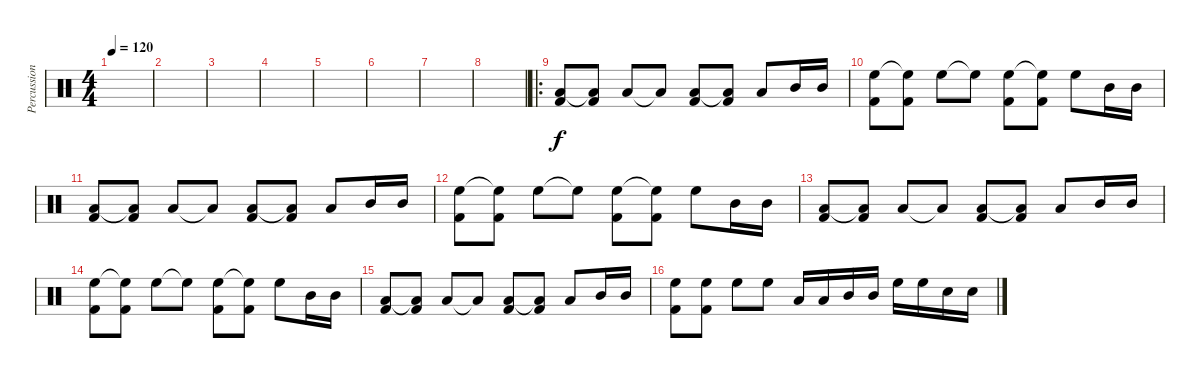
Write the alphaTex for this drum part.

\track ("Percussions" "Percussion") {instrument percussion}
\staff {score}
\articulation defaults
\ts (4 4)
\tempo 120
\clef neutral
\ks c
|
|
|
|
|
|
|
|
\ro
("Low Tom (hit)" "Kick (hit) 2").8 ("Low Floor Tom (hit)"{t} "Kick (hit) 2").8 "Low Tom (hit)".8 "Low Floor Tom (hit)"{t}.8 ("Low Tom (hit)" "Kick (hit) 2").8 ("Low Floor Tom (hit)"{t} "Kick (hit) 2").8 "Low Tom (hit)".8 "Mid Tom (hit)".16 "Mid Tom (hit)".16 |
("High Floor Tom (hit)" "Kick (hit) 2").8 ("High Floor Tom (hit)"{t} "Kick (hit) 2").8 "High Floor Tom (hit)".8 "High Floor Tom (hit)"{t}.8 ("High Floor Tom (hit)" "Kick (hit) 2").8 ("High Floor Tom (hit)"{t} "Kick (hit) 2").8 "High Floor Tom (hit)".8 "Mid Tom (hit)".16 "Mid Tom (hit)".16 |
("Low Tom (hit)" "Kick (hit) 2").8 ("Low Floor Tom (hit)"{t} "Kick (hit) 2").8 "Low Tom (hit)".8 "Low Floor Tom (hit)"{t}.8 ("Low Tom (hit)" "Kick (hit) 2").8 ("Low Floor Tom (hit)"{t} "Kick (hit) 2").8 "Low Tom (hit)".8 "Mid Tom (hit)".16 "Mid Tom (hit)".16 |
("High Floor Tom (hit)" "Kick (hit) 2").8 ("High Floor Tom (hit)"{t} "Kick (hit) 2").8 "High Floor Tom (hit)".8 "High Floor Tom (hit)"{t}.8 ("High Floor Tom (hit)" "Kick (hit) 2").8 ("High Floor Tom (hit)"{t} "Kick (hit) 2").8 "High Floor Tom (hit)".8 "Mid Tom (hit)".16 "Mid Tom (hit)".16 |
("Low Tom (hit)" "Kick (hit) 2").8 ("Low Floor Tom (hit)"{t} "Kick (hit) 2").8 "Low Tom (hit)".8 "Low Floor Tom (hit)"{t}.8 ("Low Tom (hit)" "Kick (hit) 2").8 ("Low Floor Tom (hit)"{t} "Kick (hit) 2").8 "Low Tom (hit)".8 "Mid Tom (hit)".16 "Mid Tom (hit)".16 |
("High Floor Tom (hit)" "Kick (hit) 2").8 ("High Floor Tom (hit)"{t} "Kick (hit) 2").8 "High Floor Tom (hit)".8 "High Floor Tom (hit)"{t}.8 ("High Floor Tom (hit)" "Kick (hit) 2").8 ("High Floor Tom (hit)"{t} "Kick (hit) 2").8 "High Floor Tom (hit)".8 "Mid Tom (hit)".16 "Mid Tom (hit)".16 |
("Low Tom (hit)" "Kick (hit) 2").8 ("Low Tom (hit)"{t} "Kick (hit) 2").8 "Low Tom (hit)".8 "Low Tom (hit)"{t}.8 ("Low Tom (hit)" "Kick (hit) 2").8 ("Low Tom (hit)"{t} "Kick (hit) 2").8 "Low Tom (hit)".8 "Mid Tom (hit)".16 "Mid Tom (hit)".16 |
("High Floor Tom (hit)" "Kick (hit) 2").8 ("High Floor Tom (hit)" "Kick (hit) 2").8 "High Floor Tom (hit)".8 "High Floor Tom (hit)".8 "Low Tom (hit)".16 "Low Tom (hit)".16 "Mid Tom (hit)".16 "Mid Tom (hit)".16 "High Floor Tom (hit)".16 "High Floor Tom (hit)".16 "Snare (hit) 2".16 "Snare (hit) 2".16
